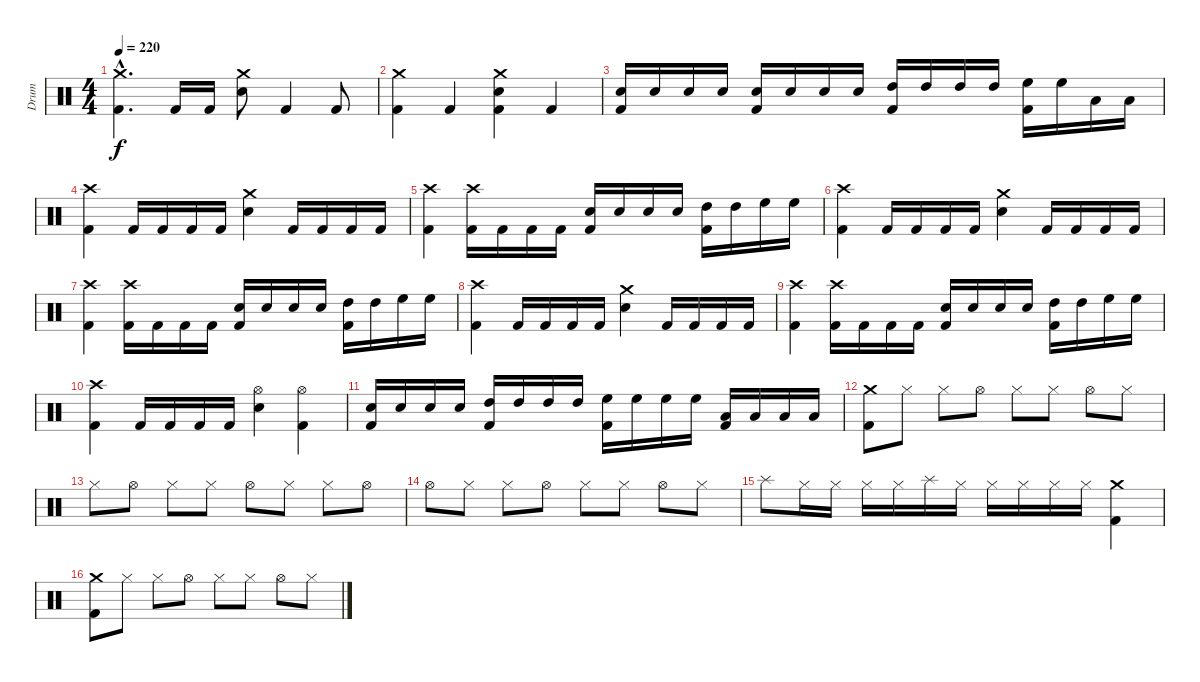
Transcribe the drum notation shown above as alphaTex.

\track ("Drum" "Drum") {instrument percussion}
\staff {score}
\articulation defaults
\ts (4 4)
\tempo 220
\clef neutral
\ks c
("Crash medium (hit)"{hac} "Kick (hit) 2"{hac}).4{d dy f} "Kick (hit) 2".16 "Kick (hit) 2".16 ("Crash medium (hit)" "Electric Snare (hit)").8 "Kick (hit) 2".4 "Kick (hit) 2".8 |
("Crash medium (hit)" "Kick (hit) 2").4 "Kick (hit) 2".4 ("Crash medium (hit)" "Electric Snare (hit)" "Kick (hit) 2").4 "Kick (hit) 2".4 |
("Electric Snare (hit)" "Kick (hit) 2").16 "Electric Snare (hit)".16 "Electric Snare (hit)".16 "Electric Snare (hit)".16 ("Electric Snare (hit)" "Kick (hit) 2").16 "Electric Snare (hit)".16 "Electric Snare (hit)".16 "Electric Snare (hit)".16 ("High Tom (hit)" "Kick (hit) 2").16 "High Tom (hit)".16 "High Tom (hit)".16 "High Tom (hit)".16 ("High Floor Tom (hit)" "Kick (hit) 2").16 "High Floor Tom (hit)".16 "Low Floor Tom (hit)".16 "Low Floor Tom (hit)".16 |
("Crash high (hit)" "Kick (hit) 2").4 "Kick (hit) 2".16 "Kick (hit) 2".16 "Kick (hit) 2".16 "Kick (hit) 2".16 ("Crash medium (hit)" "Electric Snare (hit)").4 "Kick (hit) 2".16 "Kick (hit) 2".16 "Kick (hit) 2".16 "Kick (hit) 2".16 |
("Crash high (hit)" "Kick (hit) 2").4 ("Crash high (hit)" "Kick (hit) 2").16 "Kick (hit) 2".16 "Kick (hit) 2".16 "Kick (hit) 2".16 ("Electric Snare (hit)" "Kick (hit) 2").16 "Electric Snare (hit)".16 "Electric Snare (hit)".16 "Electric Snare (hit)".16 ("High Tom (hit)" "Kick (hit) 2").16 "High Tom (hit)".16 "High Floor Tom (hit)".16 "High Floor Tom (hit)".16 |
("Crash high (hit)" "Kick (hit) 2").4 "Kick (hit) 2".16 "Kick (hit) 2".16 "Kick (hit) 2".16 "Kick (hit) 2".16 ("Crash medium (hit)" "Electric Snare (hit)").4 "Kick (hit) 2".16 "Kick (hit) 2".16 "Kick (hit) 2".16 "Kick (hit) 2".16 |
("Crash high (hit)" "Kick (hit) 2").4 ("Crash high (hit)" "Kick (hit) 2").16 "Kick (hit) 2".16 "Kick (hit) 2".16 "Kick (hit) 2".16 ("Electric Snare (hit)" "Kick (hit) 2").16 "Electric Snare (hit)".16 "Electric Snare (hit)".16 "Electric Snare (hit)".16 ("High Tom (hit)" "Kick (hit) 2").16 "High Tom (hit)".16 "High Floor Tom (hit)".16 "High Floor Tom (hit)".16 |
("Crash high (hit)" "Kick (hit) 2").4 "Kick (hit) 2".16 "Kick (hit) 2".16 "Kick (hit) 2".16 "Kick (hit) 2".16 ("Crash medium (hit)" "Electric Snare (hit)").4 "Kick (hit) 2".16 "Kick (hit) 2".16 "Kick (hit) 2".16 "Kick (hit) 2".16 |
("Crash high (hit)" "Kick (hit) 2").4 ("Crash high (hit)" "Kick (hit) 2").16 "Kick (hit) 2".16 "Kick (hit) 2".16 "Kick (hit) 2".16 ("Electric Snare (hit)" "Kick (hit) 2").16 "Electric Snare (hit)".16 "Electric Snare (hit)".16 "Electric Snare (hit)".16 ("High Tom (hit)" "Kick (hit) 2").16 "High Tom (hit)".16 "High Floor Tom (hit)".16 "High Floor Tom (hit)".16 |
("Crash high (hit)" "Kick (hit) 2").4 "Kick (hit) 2".16 "Kick (hit) 2".16 "Kick (hit) 2".16 "Kick (hit) 2".16 ("Hi-Hat (open)" "Electric Snare (hit)").4 ("Hi-Hat (open)" "Kick (hit) 2").4 |
("Electric Snare (hit)" "Kick (hit) 2").16 "Electric Snare (hit)".16 "Electric Snare (hit)".16 "Electric Snare (hit)".16 ("High Tom (hit)" "Kick (hit) 2").16 "High Tom (hit)".16 "High Tom (hit)".16 "High Tom (hit)".16 ("High Floor Tom (hit)" "Kick (hit) 2").16 "High Floor Tom (hit)".16 "High Floor Tom (hit)".16 "High Floor Tom (hit)".16 ("Low Floor Tom (hit)" "Kick (hit) 2").16 "Low Floor Tom (hit)".16 "Low Floor Tom (hit)".16 "Low Floor Tom (hit)".16 |
("Crash medium (hit)" "Kick (hit) 2").8 "Hi-Hat (closed)".8 "Hi-Hat (closed)".8 "Hi-Hat (open)".8 "Hi-Hat (closed)".8 "Hi-Hat (closed)".8 "Hi-Hat (open)".8 "Hi-Hat (closed)".8 |
"Hi-Hat (closed)".8 "Hi-Hat (open)".8 "Hi-Hat (closed)".8 "Hi-Hat (closed)".8 "Hi-Hat (open)".8 "Hi-Hat (closed)".8 "Hi-Hat (closed)".8 "Hi-Hat (open)".8 |
"Hi-Hat (open)".8 "Hi-Hat (closed)".8 "Hi-Hat (closed)".8 "Hi-Hat (open)".8 "Hi-Hat (closed)".8 "Hi-Hat (closed)".8 "Hi-Hat (open)".8 "Hi-Hat (closed)".8 |
"Splash (hit)".8 "Hi-Hat (closed)".16 "Hi-Hat (closed)".16 "Hi-Hat (closed)".16 "Hi-Hat (closed)".16 "Splash (hit)".16 "Hi-Hat (closed)".16 "Hi-Hat (closed)".16 "Hi-Hat (closed)".16 "Hi-Hat (closed)".16 "Hi-Hat (closed)".16 ("Crash medium (hit)" "Kick (hit) 2").4 |
("Crash medium (hit)" "Kick (hit) 2").8 "Hi-Hat (closed)".8 "Hi-Hat (closed)".8 "Hi-Hat (open)".8 "Hi-Hat (closed)".8 "Hi-Hat (closed)".8 "Hi-Hat (open)".8 "Hi-Hat (closed)".8
